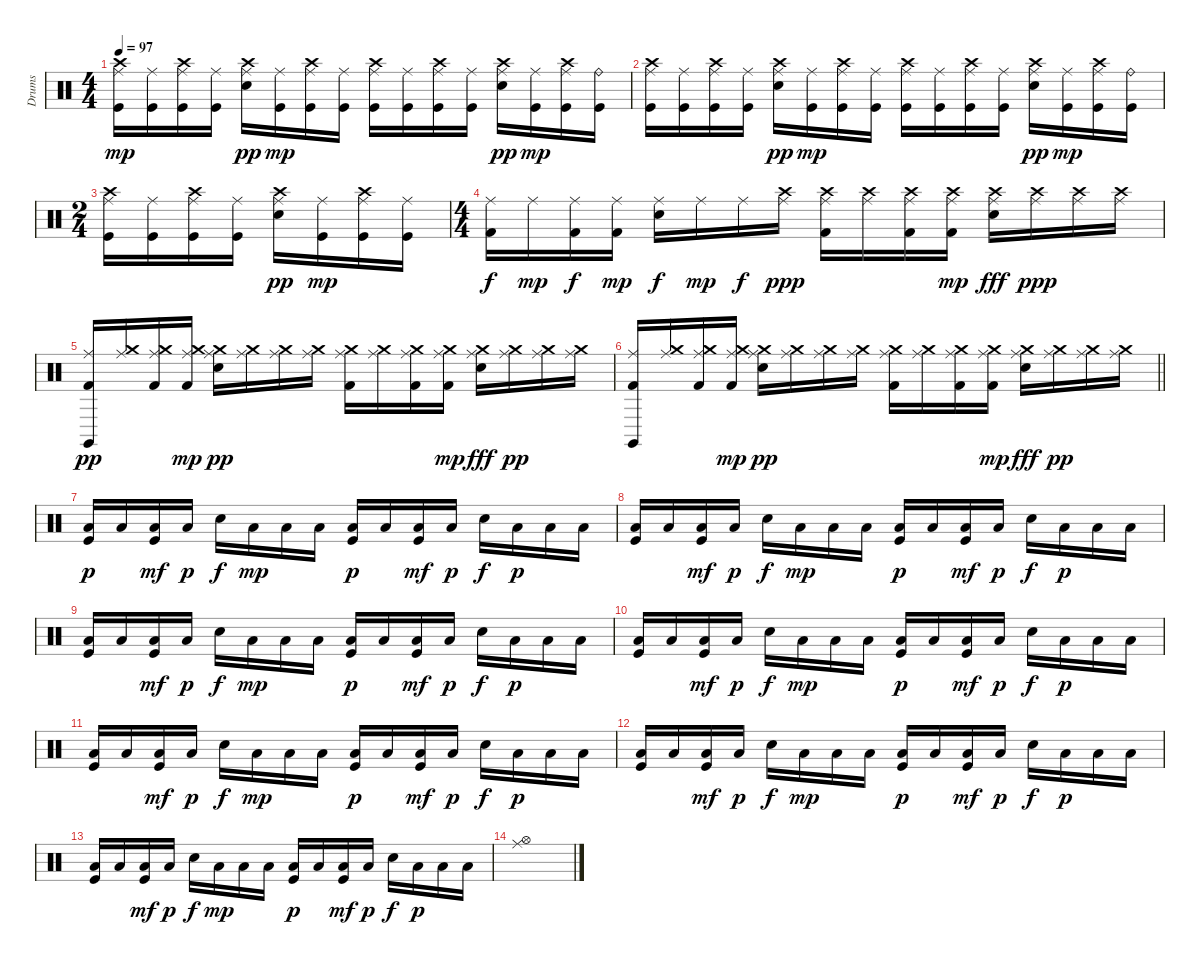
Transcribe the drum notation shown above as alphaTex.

\track ("Drums" "Drums") {instrument percussion}
\staff {score}
\articulation defaults
\ts (4 4)
\tempo 97
\clef neutral
\ks c
("Ride (middle)" "Crash high (hit)" "Kick (hit)").16{dy mp} ("Ride (middle)" "Kick (hit)").16 ("Ride (middle)" "Crash high (hit)" "Kick (hit)").16 ("Ride (middle)" "Kick (hit)").16 ("Ride (middle)" "Electric Snare (hit)" "Crash high (hit)").16{dy pp} ("Ride (middle)" "Kick (hit)").16{dy mp} ("Ride (middle)" "Crash high (hit)" "Kick (hit)").16 ("Ride (middle)" "Kick (hit)").16 ("Ride (middle)" "Crash high (hit)" "Kick (hit)").16 ("Ride (middle)" "Kick (hit)").16 ("Ride (middle)" "Crash high (hit)" "Kick (hit)").16 ("Ride (middle)" "Kick (hit)").16 ("Ride (middle)" "Electric Snare (hit)" "Crash high (hit)").16{dy pp} ("Ride (middle)" "Kick (hit)").16{dy mp} ("Ride (middle)" "Crash high (hit)" "Kick (hit)").16 ("Ride (bell)" "Kick (hit)").16 |
("Ride (middle)" "Crash high (hit)" "Kick (hit)").16 ("Ride (middle)" "Kick (hit)").16 ("Ride (middle)" "Crash high (hit)" "Kick (hit)").16 ("Ride (middle)" "Kick (hit)").16 ("Ride (middle)" "Electric Snare (hit)" "Crash high (hit)").16{dy pp} ("Ride (middle)" "Kick (hit)").16{dy mp} ("Ride (middle)" "Crash high (hit)" "Kick (hit)").16 ("Ride (middle)" "Kick (hit)").16 ("Ride (middle)" "Crash high (hit)" "Kick (hit)").16 ("Ride (middle)" "Kick (hit)").16 ("Ride (middle)" "Crash high (hit)" "Kick (hit)").16 ("Ride (middle)" "Kick (hit)").16 ("Ride (middle)" "Electric Snare (hit)" "Crash high (hit)").16{dy pp} ("Ride (middle)" "Kick (hit)").16{dy mp} ("Ride (middle)" "Crash high (hit)" "Kick (hit)").16 ("Ride (bell)" "Kick (hit)").16 |
\ts (2 4)
("Ride (middle)" "Crash high (hit)" "Kick (hit)").16 ("Ride (middle)" "Kick (hit)").16 ("Ride (middle)" "Crash high (hit)" "Kick (hit)").16 ("Ride (middle)" "Kick (hit)").16 ("Ride (middle)" "Electric Snare (hit)" "Crash high (hit)").16{dy pp} ("Ride (middle)" "Kick (hit)").16{dy mp} ("Ride (middle)" "Crash high (hit)" "Kick (hit)").16 ("Ride (middle)" "Kick (hit)").16 |
\ts (4 4)
("Ride (middle)" "Kick (hit) 2").16{dy f} "Ride (middle)".16{dy mp} ("Ride (middle)" "Kick (hit) 2").16{dy f} ("Ride (middle)" "Kick (hit) 2").16{dy mp} ("Ride (middle)" "Electric Snare (hit)").16{dy f} "Ride (middle)".16{dy mp} "Ride (middle)".16{dy f} ("Ride (middle)" "Crash high (hit)").16{dy ppp} ("Ride (middle)" "Crash high (hit)" "Kick (hit) 2").16 ("Ride (middle)" "Crash high (hit)").16 ("Ride (middle)" "Crash high (hit)" "Kick (hit) 2").16 ("Ride (middle)" "Crash high (hit)" "Kick (hit) 2").16{dy mp} ("Ride (middle)" "Crash high (hit)" "Electric Snare (hit)").16{dy fff} ("Ride (middle)" "Crash high (hit)").16{dy ppp} ("Ride (middle)" "Crash high (hit)").16 ("Ride (middle)" "Crash high (hit)").16 |
("Ride (middle)" "Claves (hit)" "Kick (hit) 2").16{dy pp} ("Ride (middle)" "Crash medium (hit)").16 ("Ride (middle)" "Crash medium (hit)" "Kick (hit) 2").16 ("Ride (middle)" "Crash medium (hit)" "Kick (hit) 2").16{dy mp} ("Ride (middle)" "Crash medium (hit)" "Electric Snare (hit)").16{dy pp} ("Ride (middle)" "Crash medium (hit)").16 ("Ride (middle)" "Crash medium (hit)").16 ("Ride (middle)" "Crash medium (hit)").16 ("Ride (middle)" "Crash medium (hit)" "Kick (hit) 2").16 ("Ride (middle)" "Crash medium (hit)").16 ("Ride (middle)" "Crash medium (hit)" "Kick (hit) 2").16 ("Ride (middle)" "Crash medium (hit)" "Kick (hit) 2").16{dy mp} ("Ride (middle)" "Crash medium (hit)" "Electric Snare (hit)").16{dy fff} ("Ride (middle)" "Crash medium (hit)").16{dy pp} ("Ride (middle)" "Crash medium (hit)").16 ("Ride (middle)" "Crash medium (hit)").16 |
\barLineRight lightlight
("Ride (middle)" "Claves (hit)" "Kick (hit) 2").16 ("Ride (middle)" "Crash medium (hit)").16 ("Ride (middle)" "Crash medium (hit)" "Kick (hit) 2").16 ("Ride (middle)" "Crash medium (hit)" "Kick (hit) 2").16{dy mp} ("Ride (middle)" "Crash medium (hit)" "Electric Snare (hit)").16{dy pp} ("Ride (middle)" "Crash medium (hit)").16 ("Ride (middle)" "Crash medium (hit)").16 ("Ride (middle)" "Crash medium (hit)").16 ("Ride (middle)" "Crash medium (hit)" "Kick (hit) 2").16 ("Ride (middle)" "Crash medium (hit)").16 ("Ride (middle)" "Crash medium (hit)" "Kick (hit) 2").16 ("Ride (middle)" "Crash medium (hit)" "Kick (hit) 2").16{dy mp} ("Ride (middle)" "Crash medium (hit)" "Electric Snare (hit)").16{dy fff} ("Ride (middle)" "Crash medium (hit)").16{dy pp} ("Ride (middle)" "Crash medium (hit)").16 ("Ride (middle)" "Crash medium (hit)").16 |
("Low Tom (hit)" "Kick (hit)").16{dy p} "Low Tom (hit)".16 ("Low Tom (hit)" "Kick (hit)").16{dy mf} "Low Tom (hit)".16{dy p} "Electric Snare (hit)".16{dy f} "Low Tom (hit)".16{dy mp} "Low Tom (hit)".16 "Low Tom (hit)".16 ("Low Tom (hit)" "Kick (hit)").16{dy p} "Low Tom (hit)".16 ("Low Tom (hit)" "Kick (hit)").16{dy mf} "Low Tom (hit)".16{dy p} "Electric Snare (hit)".16{dy f} "Low Tom (hit)".16{dy p} "Low Tom (hit)".16 "Low Tom (hit)".16 |
("Low Tom (hit)" "Kick (hit)").16 "Low Tom (hit)".16 ("Low Tom (hit)" "Kick (hit)").16{dy mf} "Low Tom (hit)".16{dy p} "Electric Snare (hit)".16{dy f} "Low Tom (hit)".16{dy mp} "Low Tom (hit)".16 "Low Tom (hit)".16 ("Low Tom (hit)" "Kick (hit)").16{dy p} "Low Tom (hit)".16 ("Low Tom (hit)" "Kick (hit)").16{dy mf} "Low Tom (hit)".16{dy p} "Electric Snare (hit)".16{dy f} "Low Tom (hit)".16{dy p} "Low Tom (hit)".16 "Low Tom (hit)".16 |
("Low Tom (hit)" "Kick (hit)").16 "Low Tom (hit)".16 ("Low Tom (hit)" "Kick (hit)").16{dy mf} "Low Tom (hit)".16{dy p} "Electric Snare (hit)".16{dy f} "Low Tom (hit)".16{dy mp} "Low Tom (hit)".16 "Low Tom (hit)".16 ("Low Tom (hit)" "Kick (hit)").16{dy p} "Low Tom (hit)".16 ("Low Tom (hit)" "Kick (hit)").16{dy mf} "Low Tom (hit)".16{dy p} "Electric Snare (hit)".16{dy f} "Low Tom (hit)".16{dy p} "Low Tom (hit)".16 "Low Tom (hit)".16 |
("Low Tom (hit)" "Kick (hit)").16 "Low Tom (hit)".16 ("Low Tom (hit)" "Kick (hit)").16{dy mf} "Low Tom (hit)".16{dy p} "Electric Snare (hit)".16{dy f} "Low Tom (hit)".16{dy mp} "Low Tom (hit)".16 "Low Tom (hit)".16 ("Low Tom (hit)" "Kick (hit)").16{dy p} "Low Tom (hit)".16 ("Low Tom (hit)" "Kick (hit)").16{dy mf} "Low Tom (hit)".16{dy p} "Electric Snare (hit)".16{dy f} "Low Tom (hit)".16{dy p} "Low Tom (hit)".16 "Low Tom (hit)".16 |
("Low Tom (hit)" "Kick (hit)").16 "Low Tom (hit)".16 ("Low Tom (hit)" "Kick (hit)").16{dy mf} "Low Tom (hit)".16{dy p} "Electric Snare (hit)".16{dy f} "Low Tom (hit)".16{dy mp} "Low Tom (hit)".16 "Low Tom (hit)".16 ("Low Tom (hit)" "Kick (hit)").16{dy p} "Low Tom (hit)".16 ("Low Tom (hit)" "Kick (hit)").16{dy mf} "Low Tom (hit)".16{dy p} "Electric Snare (hit)".16{dy f} "Low Tom (hit)".16{dy p} "Low Tom (hit)".16 "Low Tom (hit)".16 |
("Low Tom (hit)" "Kick (hit)").16 "Low Tom (hit)".16 ("Low Tom (hit)" "Kick (hit)").16{dy mf} "Low Tom (hit)".16{dy p} "Electric Snare (hit)".16{dy f} "Low Tom (hit)".16{dy mp} "Low Tom (hit)".16 "Low Tom (hit)".16 ("Low Tom (hit)" "Kick (hit)").16{dy p} "Low Tom (hit)".16 ("Low Tom (hit)" "Kick (hit)").16{dy mf} "Low Tom (hit)".16{dy p} "Electric Snare (hit)".16{dy f} "Low Tom (hit)".16{dy p} "Low Tom (hit)".16 "Low Tom (hit)".16 |
("Low Tom (hit)" "Kick (hit)").16 "Low Tom (hit)".16 ("Low Tom (hit)" "Kick (hit)").16{dy mf} "Low Tom (hit)".16{dy p} "Electric Snare (hit)".16{dy f} "Low Tom (hit)".16{dy mp} "Low Tom (hit)".16 "Low Tom (hit)".16 ("Low Tom (hit)" "Kick (hit)").16{dy p} "Low Tom (hit)".16 ("Low Tom (hit)" "Kick (hit)").16{dy mf} "Low Tom (hit)".16{dy p} "Electric Snare (hit)".16{dy f} "Low Tom (hit)".16{dy p} "Low Tom (hit)".16 "Low Tom (hit)".16 |
("Ride (middle)" "Hi-Hat (open)").1
